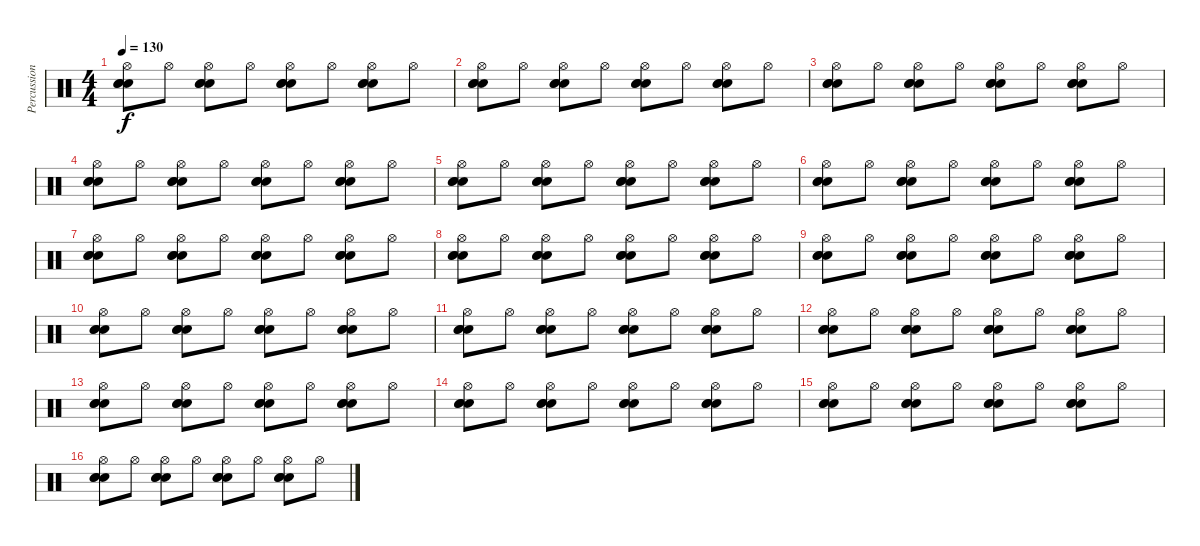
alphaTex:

\track ("Percussion" "Percussion") {instrument percussion}
\staff {score}
\articulation defaults
\ts (4 4)
\tempo 130
\clef neutral
\ks c
("Hi-Hat (open)" "Electric Snare (hit)" "Electric Snare (hit)" "Electric Snare (hit)").8{dy f} "Hi-Hat (open)".8 ("Hi-Hat (open)" "Electric Snare (hit)" "Electric Snare (hit)" "Electric Snare (hit)").8 "Hi-Hat (open)".8 ("Hi-Hat (open)" "Electric Snare (hit)" "Electric Snare (hit)" "Electric Snare (hit)").8 "Hi-Hat (open)".8 ("Hi-Hat (open)" "Electric Snare (hit)" "Electric Snare (hit)" "Electric Snare (hit)").8 "Hi-Hat (open)".8 |
("Hi-Hat (open)" "Electric Snare (hit)" "Electric Snare (hit)" "Electric Snare (hit)").8 "Hi-Hat (open)".8 ("Hi-Hat (open)" "Electric Snare (hit)" "Electric Snare (hit)" "Electric Snare (hit)").8 "Hi-Hat (open)".8 ("Hi-Hat (open)" "Electric Snare (hit)" "Electric Snare (hit)" "Electric Snare (hit)").8 "Hi-Hat (open)".8 ("Hi-Hat (open)" "Electric Snare (hit)" "Electric Snare (hit)" "Electric Snare (hit)").8 "Hi-Hat (open)".8 |
("Hi-Hat (open)" "Electric Snare (hit)" "Electric Snare (hit)" "Electric Snare (hit)").8 "Hi-Hat (open)".8 ("Hi-Hat (open)" "Electric Snare (hit)" "Electric Snare (hit)" "Electric Snare (hit)").8 "Hi-Hat (open)".8 ("Hi-Hat (open)" "Electric Snare (hit)" "Electric Snare (hit)" "Electric Snare (hit)").8 "Hi-Hat (open)".8 ("Hi-Hat (open)" "Electric Snare (hit)" "Electric Snare (hit)" "Electric Snare (hit)").8 "Hi-Hat (open)".8 |
("Hi-Hat (open)" "Electric Snare (hit)" "Electric Snare (hit)" "Electric Snare (hit)").8 "Hi-Hat (open)".8 ("Hi-Hat (open)" "Electric Snare (hit)" "Electric Snare (hit)" "Electric Snare (hit)").8 "Hi-Hat (open)".8 ("Hi-Hat (open)" "Electric Snare (hit)" "Electric Snare (hit)" "Electric Snare (hit)").8 "Hi-Hat (open)".8 ("Hi-Hat (open)" "Electric Snare (hit)" "Electric Snare (hit)" "Electric Snare (hit)").8 "Hi-Hat (open)".8 |
("Hi-Hat (open)" "Electric Snare (hit)" "Electric Snare (hit)" "Electric Snare (hit)").8 "Hi-Hat (open)".8 ("Hi-Hat (open)" "Electric Snare (hit)" "Electric Snare (hit)" "Electric Snare (hit)").8 "Hi-Hat (open)".8 ("Hi-Hat (open)" "Electric Snare (hit)" "Electric Snare (hit)" "Electric Snare (hit)").8 "Hi-Hat (open)".8 ("Hi-Hat (open)" "Electric Snare (hit)" "Electric Snare (hit)" "Electric Snare (hit)").8 "Hi-Hat (open)".8 |
("Hi-Hat (open)" "Electric Snare (hit)" "Electric Snare (hit)" "Electric Snare (hit)").8 "Hi-Hat (open)".8 ("Hi-Hat (open)" "Electric Snare (hit)" "Electric Snare (hit)" "Electric Snare (hit)").8 "Hi-Hat (open)".8 ("Hi-Hat (open)" "Electric Snare (hit)" "Electric Snare (hit)" "Electric Snare (hit)").8 "Hi-Hat (open)".8 ("Hi-Hat (open)" "Electric Snare (hit)" "Electric Snare (hit)" "Electric Snare (hit)").8 "Hi-Hat (open)".8 |
("Hi-Hat (open)" "Electric Snare (hit)" "Electric Snare (hit)" "Electric Snare (hit)").8 "Hi-Hat (open)".8 ("Hi-Hat (open)" "Electric Snare (hit)" "Electric Snare (hit)" "Electric Snare (hit)").8 "Hi-Hat (open)".8 ("Hi-Hat (open)" "Electric Snare (hit)" "Electric Snare (hit)" "Electric Snare (hit)").8 "Hi-Hat (open)".8 ("Hi-Hat (open)" "Electric Snare (hit)" "Electric Snare (hit)" "Electric Snare (hit)").8 "Hi-Hat (open)".8 |
("Hi-Hat (open)" "Electric Snare (hit)" "Electric Snare (hit)" "Electric Snare (hit)").8 "Hi-Hat (open)".8 ("Hi-Hat (open)" "Electric Snare (hit)" "Electric Snare (hit)" "Electric Snare (hit)").8 "Hi-Hat (open)".8 ("Hi-Hat (open)" "Electric Snare (hit)" "Electric Snare (hit)" "Electric Snare (hit)").8 "Hi-Hat (open)".8 ("Hi-Hat (open)" "Electric Snare (hit)" "Electric Snare (hit)" "Electric Snare (hit)").8 "Hi-Hat (open)".8 |
("Hi-Hat (open)" "Electric Snare (hit)" "Electric Snare (hit)" "Electric Snare (hit)").8 "Hi-Hat (open)".8 ("Hi-Hat (open)" "Electric Snare (hit)" "Electric Snare (hit)" "Electric Snare (hit)").8 "Hi-Hat (open)".8 ("Hi-Hat (open)" "Electric Snare (hit)" "Electric Snare (hit)" "Electric Snare (hit)").8 "Hi-Hat (open)".8 ("Hi-Hat (open)" "Electric Snare (hit)" "Electric Snare (hit)" "Electric Snare (hit)").8 "Hi-Hat (open)".8 |
("Hi-Hat (open)" "Electric Snare (hit)" "Electric Snare (hit)" "Electric Snare (hit)").8 "Hi-Hat (open)".8 ("Hi-Hat (open)" "Electric Snare (hit)" "Electric Snare (hit)" "Electric Snare (hit)").8 "Hi-Hat (open)".8 ("Hi-Hat (open)" "Electric Snare (hit)" "Electric Snare (hit)" "Electric Snare (hit)").8 "Hi-Hat (open)".8 ("Hi-Hat (open)" "Electric Snare (hit)" "Electric Snare (hit)" "Electric Snare (hit)").8 "Hi-Hat (open)".8 |
("Hi-Hat (open)" "Electric Snare (hit)" "Electric Snare (hit)" "Electric Snare (hit)").8 "Hi-Hat (open)".8 ("Hi-Hat (open)" "Electric Snare (hit)" "Electric Snare (hit)" "Electric Snare (hit)").8 "Hi-Hat (open)".8 ("Hi-Hat (open)" "Electric Snare (hit)" "Electric Snare (hit)" "Electric Snare (hit)").8 "Hi-Hat (open)".8 ("Hi-Hat (open)" "Electric Snare (hit)" "Electric Snare (hit)" "Electric Snare (hit)").8 "Hi-Hat (open)".8 |
("Hi-Hat (open)" "Electric Snare (hit)" "Electric Snare (hit)" "Electric Snare (hit)").8 "Hi-Hat (open)".8 ("Hi-Hat (open)" "Electric Snare (hit)" "Electric Snare (hit)" "Electric Snare (hit)").8 "Hi-Hat (open)".8 ("Hi-Hat (open)" "Electric Snare (hit)" "Electric Snare (hit)" "Electric Snare (hit)").8 "Hi-Hat (open)".8 ("Hi-Hat (open)" "Electric Snare (hit)" "Electric Snare (hit)" "Electric Snare (hit)").8 "Hi-Hat (open)".8 |
("Hi-Hat (open)" "Electric Snare (hit)" "Electric Snare (hit)" "Electric Snare (hit)").8 "Hi-Hat (open)".8 ("Hi-Hat (open)" "Electric Snare (hit)" "Electric Snare (hit)" "Electric Snare (hit)").8 "Hi-Hat (open)".8 ("Hi-Hat (open)" "Electric Snare (hit)" "Electric Snare (hit)" "Electric Snare (hit)").8 "Hi-Hat (open)".8 ("Hi-Hat (open)" "Electric Snare (hit)" "Electric Snare (hit)" "Electric Snare (hit)").8 "Hi-Hat (open)".8 |
("Hi-Hat (open)" "Electric Snare (hit)" "Electric Snare (hit)" "Electric Snare (hit)").8 "Hi-Hat (open)".8 ("Hi-Hat (open)" "Electric Snare (hit)" "Electric Snare (hit)" "Electric Snare (hit)").8 "Hi-Hat (open)".8 ("Hi-Hat (open)" "Electric Snare (hit)" "Electric Snare (hit)" "Electric Snare (hit)").8 "Hi-Hat (open)".8 ("Hi-Hat (open)" "Electric Snare (hit)" "Electric Snare (hit)" "Electric Snare (hit)").8 "Hi-Hat (open)".8 |
("Hi-Hat (open)" "Electric Snare (hit)" "Electric Snare (hit)" "Electric Snare (hit)").8 "Hi-Hat (open)".8 ("Hi-Hat (open)" "Electric Snare (hit)" "Electric Snare (hit)" "Electric Snare (hit)").8 "Hi-Hat (open)".8 ("Hi-Hat (open)" "Electric Snare (hit)" "Electric Snare (hit)" "Electric Snare (hit)").8 "Hi-Hat (open)".8 ("Hi-Hat (open)" "Electric Snare (hit)" "Electric Snare (hit)" "Electric Snare (hit)").8 "Hi-Hat (open)".8 |
("Hi-Hat (open)" "Electric Snare (hit)" "Electric Snare (hit)" "Electric Snare (hit)").8 "Hi-Hat (open)".8 ("Hi-Hat (open)" "Electric Snare (hit)" "Electric Snare (hit)" "Electric Snare (hit)").8 "Hi-Hat (open)".8 ("Hi-Hat (open)" "Electric Snare (hit)" "Electric Snare (hit)" "Electric Snare (hit)").8 "Hi-Hat (open)".8 ("Hi-Hat (open)" "Electric Snare (hit)" "Electric Snare (hit)" "Electric Snare (hit)").8 "Hi-Hat (open)".8
